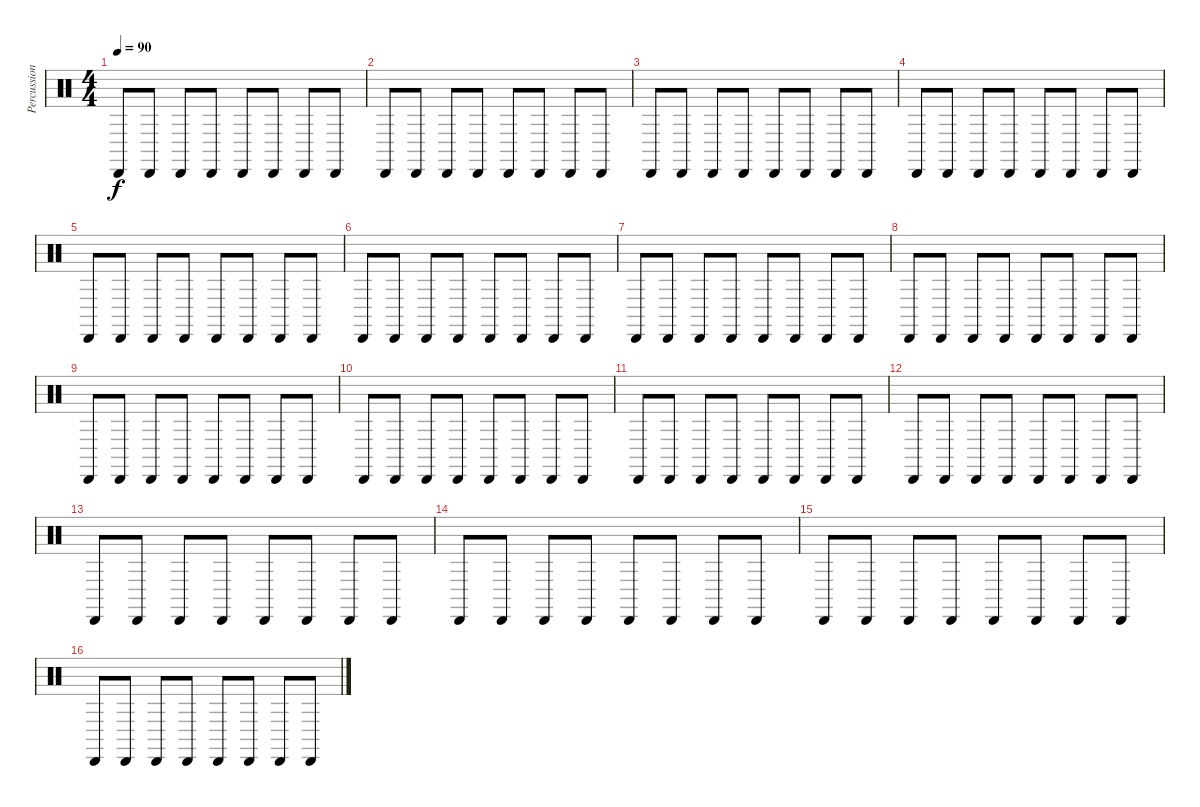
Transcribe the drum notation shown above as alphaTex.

\track ("Percussion." "Percussion") {instrument percussion}
\staff {score}
\articulation defaults
\ts (4 4)
\tempo 90
\clef neutral
\ks c "Cabasa (hit)".8{dy f} "Cabasa (hit)".8 "Cabasa (hit)".8 "Cabasa (hit)".8 "Cabasa (hit)".8 "Cabasa (hit)".8 "Cabasa (hit)".8 "Cabasa (hit)".8
|
"Cabasa (hit)".8 "Cabasa (hit)".8 "Cabasa (hit)".8 "Cabasa (hit)".8 "Cabasa (hit)".8 "Cabasa (hit)".8 "Cabasa (hit)".8 "Cabasa (hit)".8 |
"Cabasa (hit)".8 "Cabasa (hit)".8 "Cabasa (hit)".8 "Cabasa (hit)".8 "Cabasa (hit)".8 "Cabasa (hit)".8 "Cabasa (hit)".8 "Cabasa (hit)".8 |
"Cabasa (hit)".8 "Cabasa (hit)".8 "Cabasa (hit)".8 "Cabasa (hit)".8 "Cabasa (hit)".8 "Cabasa (hit)".8 "Cabasa (hit)".8 "Cabasa (hit)".8 |
"Cabasa (hit)".8 "Cabasa (hit)".8 "Cabasa (hit)".8 "Cabasa (hit)".8 "Cabasa (hit)".8 "Cabasa (hit)".8 "Cabasa (hit)".8 "Cabasa (hit)".8 |
"Cabasa (hit)".8 "Cabasa (hit)".8 "Cabasa (hit)".8 "Cabasa (hit)".8 "Cabasa (hit)".8 "Cabasa (hit)".8 "Cabasa (hit)".8 "Cabasa (hit)".8 |
"Cabasa (hit)".8 "Cabasa (hit)".8 "Cabasa (hit)".8 "Cabasa (hit)".8 "Cabasa (hit)".8 "Cabasa (hit)".8 "Cabasa (hit)".8 "Cabasa (hit)".8 |
"Cabasa (hit)".8 "Cabasa (hit)".8 "Cabasa (hit)".8 "Cabasa (hit)".8 "Cabasa (hit)".8 "Cabasa (hit)".8 "Cabasa (hit)".8 "Cabasa (hit)".8 |
"Cabasa (hit)".8 "Cabasa (hit)".8 "Cabasa (hit)".8 "Cabasa (hit)".8 "Cabasa (hit)".8 "Cabasa (hit)".8 "Cabasa (hit)".8 "Cabasa (hit)".8 |
"Cabasa (hit)".8 "Cabasa (hit)".8 "Cabasa (hit)".8 "Cabasa (hit)".8 "Cabasa (hit)".8 "Cabasa (hit)".8 "Cabasa (hit)".8 "Cabasa (hit)".8 |
"Cabasa (hit)".8 "Cabasa (hit)".8 "Cabasa (hit)".8 "Cabasa (hit)".8 "Cabasa (hit)".8 "Cabasa (hit)".8 "Cabasa (hit)".8 "Cabasa (hit)".8 |
"Cabasa (hit)".8 "Cabasa (hit)".8 "Cabasa (hit)".8 "Cabasa (hit)".8 "Cabasa (hit)".8 "Cabasa (hit)".8 "Cabasa (hit)".8 "Cabasa (hit)".8 |
"Cabasa (hit)".8 "Cabasa (hit)".8 "Cabasa (hit)".8 "Cabasa (hit)".8 "Cabasa (hit)".8 "Cabasa (hit)".8 "Cabasa (hit)".8 "Cabasa (hit)".8 |
"Cabasa (hit)".8 "Cabasa (hit)".8 "Cabasa (hit)".8 "Cabasa (hit)".8 "Cabasa (hit)".8 "Cabasa (hit)".8 "Cabasa (hit)".8 "Cabasa (hit)".8 |
"Cabasa (hit)".8 "Cabasa (hit)".8 "Cabasa (hit)".8 "Cabasa (hit)".8 "Cabasa (hit)".8 "Cabasa (hit)".8 "Cabasa (hit)".8 "Cabasa (hit)".8 |
"Cabasa (hit)".8 "Cabasa (hit)".8 "Cabasa (hit)".8 "Cabasa (hit)".8 "Cabasa (hit)".8 "Cabasa (hit)".8 "Cabasa (hit)".8 "Cabasa (hit)".8
